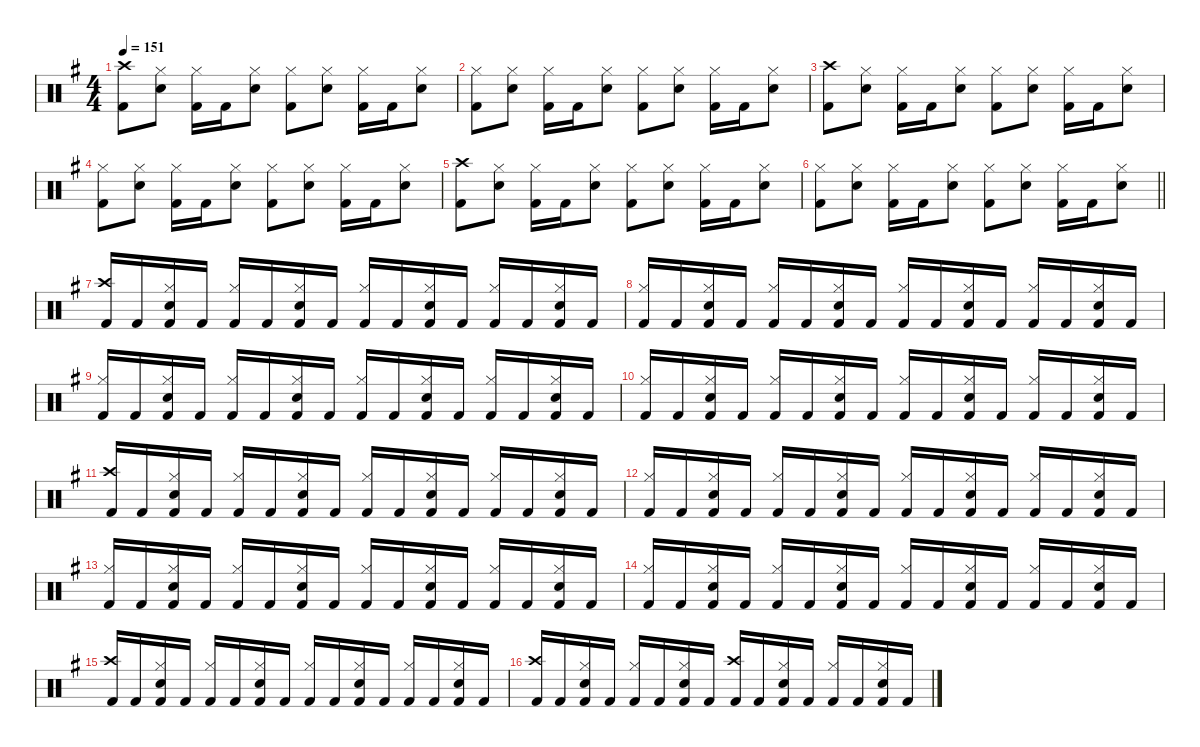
\defaultSystemsLayout 4
\hideDynamics
\bracketExtendMode nobrackets
\singleTrackTrackNamePolicy hidden
\multiTrackTrackNamePolicy hidden
\otherSystemsTrackNameOrientation horizontal
\track ("Lars Ulrich" "drm.") {instrument percussion}
\staff {score}
\articulation defaults
\ts (4 4)
\tempo 151
\clef neutral
\ks eminor
("Crash high (hit)"{acc forcenatural} "Kick (hit) 2"{acc forcenatural}).8{dy f beam Down} ("Hi-Hat (closed)"{acc forcenatural} "Snare (hit) 2"{acc forcenatural}).8{beam Down} ("Hi-Hat (closed)"{acc forcenatural} "Kick (hit) 2"{acc forcenatural}).16{beam Down} "Kick (hit) 2"{acc forcenatural}.16{beam Down} ("Hi-Hat (closed)"{acc forcenatural} "Snare (hit) 2"{acc forcenatural}).8{beam Down} ("Hi-Hat (closed)"{acc forcenatural} "Kick (hit) 2"{acc forcenatural}).8{beam Down} ("Hi-Hat (closed)"{acc forcenatural} "Snare (hit) 2"{acc forcenatural}).8{beam Down} ("Hi-Hat (closed)"{acc forcenatural} "Kick (hit) 2"{acc forcenatural}).16{beam Down} "Kick (hit) 2"{acc forcenatural}.16{beam Down} ("Hi-Hat (closed)"{acc forcenatural} "Snare (hit) 2"{acc forcenatural}).8{beam Down} |
("Hi-Hat (closed)"{acc forcenatural} "Kick (hit) 2"{acc forcenatural}).8{beam Down} ("Hi-Hat (closed)"{acc forcenatural} "Snare (hit) 2"{acc forcenatural}).8{beam Down} ("Hi-Hat (closed)"{acc forcenatural} "Kick (hit) 2"{acc forcenatural}).16{beam Down} "Kick (hit) 2"{acc forcenatural}.16{beam Down} ("Hi-Hat (closed)"{acc forcenatural} "Snare (hit) 2"{acc forcenatural}).8{beam Down} ("Hi-Hat (closed)"{acc forcenatural} "Kick (hit) 2"{acc forcenatural}).8{beam Down} ("Hi-Hat (closed)"{acc forcenatural} "Snare (hit) 2"{acc forcenatural}).8{beam Down} ("Hi-Hat (closed)"{acc forcenatural} "Kick (hit) 2"{acc forcenatural}).16{beam Down} "Kick (hit) 2"{acc forcenatural}.16{beam Down} ("Hi-Hat (closed)"{acc forcenatural} "Snare (hit) 2"{acc forcenatural}).8{beam Down} |
("Crash high (hit)"{acc forcenatural} "Kick (hit) 2"{acc forcenatural}).8{beam Down} ("Hi-Hat (closed)"{acc forcenatural} "Snare (hit) 2"{acc forcenatural}).8{beam Down} ("Hi-Hat (closed)"{acc forcenatural} "Kick (hit) 2"{acc forcenatural}).16{beam Down} "Kick (hit) 2"{acc forcenatural}.16{beam Down} ("Hi-Hat (closed)"{acc forcenatural} "Snare (hit) 2"{acc forcenatural}).8{beam Down} ("Hi-Hat (closed)"{acc forcenatural} "Kick (hit) 2"{acc forcenatural}).8{beam Down} ("Hi-Hat (closed)"{acc forcenatural} "Snare (hit) 2"{acc forcenatural}).8{beam Down} ("Hi-Hat (closed)"{acc forcenatural} "Kick (hit) 2"{acc forcenatural}).16{beam Down} "Kick (hit) 2"{acc forcenatural}.16{beam Down} ("Hi-Hat (closed)"{acc forcenatural} "Snare (hit) 2"{acc forcenatural}).8{beam Down} |
("Hi-Hat (closed)"{acc forcenatural} "Kick (hit) 2"{acc forcenatural}).8{beam Down} ("Hi-Hat (closed)"{acc forcenatural} "Snare (hit) 2"{acc forcenatural}).8{beam Down} ("Hi-Hat (closed)"{acc forcenatural} "Kick (hit) 2"{acc forcenatural}).16{beam Down} "Kick (hit) 2"{acc forcenatural}.16{beam Down} ("Hi-Hat (closed)"{acc forcenatural} "Snare (hit) 2"{acc forcenatural}).8{beam Down} ("Hi-Hat (closed)"{acc forcenatural} "Kick (hit) 2"{acc forcenatural}).8{beam Down} ("Hi-Hat (closed)"{acc forcenatural} "Snare (hit) 2"{acc forcenatural}).8{beam Down} ("Hi-Hat (closed)"{acc forcenatural} "Kick (hit) 2"{acc forcenatural}).16{beam Down} "Kick (hit) 2"{acc forcenatural}.16{beam Down} ("Hi-Hat (closed)"{acc forcenatural} "Snare (hit) 2"{acc forcenatural}).8{beam Down} |
("Crash high (hit)"{acc forcenatural} "Kick (hit) 2"{acc forcenatural}).8{beam Down} ("Hi-Hat (closed)"{acc forcenatural} "Snare (hit) 2"{acc forcenatural}).8{beam Down} ("Hi-Hat (closed)"{acc forcenatural} "Kick (hit) 2"{acc forcenatural}).16{beam Down} "Kick (hit) 2"{acc forcenatural}.16{beam Down} ("Hi-Hat (closed)"{acc forcenatural} "Snare (hit) 2"{acc forcenatural}).8{beam Down} ("Hi-Hat (closed)"{acc forcenatural} "Kick (hit) 2"{acc forcenatural}).8{beam Down} ("Hi-Hat (closed)"{acc forcenatural} "Snare (hit) 2"{acc forcenatural}).8{beam Down} ("Hi-Hat (closed)"{acc forcenatural} "Kick (hit) 2"{acc forcenatural}).16{beam Down} "Kick (hit) 2"{acc forcenatural}.16{beam Down} ("Hi-Hat (closed)"{acc forcenatural} "Snare (hit) 2"{acc forcenatural}).8{beam Down} |
\barLineRight lightlight
("Hi-Hat (closed)"{acc forcenatural} "Kick (hit) 2"{acc forcenatural}).8{beam Down} ("Hi-Hat (closed)"{acc forcenatural} "Snare (hit) 2"{acc forcenatural}).8{beam Down} ("Hi-Hat (closed)"{acc forcenatural} "Kick (hit) 2"{acc forcenatural}).16{beam Down} "Kick (hit) 2"{acc forcenatural}.16{beam Down} ("Hi-Hat (closed)"{acc forcenatural} "Snare (hit) 2"{acc forcenatural}).8{beam Down} ("Hi-Hat (closed)"{acc forcenatural} "Kick (hit) 2"{acc forcenatural}).8{beam Down} ("Hi-Hat (closed)"{acc forcenatural} "Snare (hit) 2"{acc forcenatural}).8{beam Down} ("Hi-Hat (closed)"{acc forcenatural} "Kick (hit) 2"{acc forcenatural}).16{beam Down} "Kick (hit) 2"{acc forcenatural}.16{beam Down} ("Hi-Hat (closed)"{acc forcenatural} "Snare (hit) 2"{acc forcenatural}).8{beam Down} |
("Crash high (hit)"{acc forcenatural} "Kick (hit) 2"{acc forcenatural}).16{beam Up} "Kick (hit) 2"{acc forcenatural}.16{beam Up} ("Hi-Hat (closed)"{acc forcenatural} "Snare (hit) 2"{acc forcenatural} "Kick (hit) 2"{acc forcenatural}).16{beam Up} "Kick (hit) 2"{acc forcenatural}.16{beam Up} ("Hi-Hat (closed)"{acc forcenatural} "Kick (hit) 2"{acc forcenatural}).16{beam Up} "Kick (hit) 2"{acc forcenatural}.16{beam Up} ("Hi-Hat (closed)"{acc forcenatural} "Snare (hit) 2"{acc forcenatural} "Kick (hit) 2"{acc forcenatural}).16{beam Up} "Kick (hit) 2"{acc forcenatural}.16{beam Up} ("Hi-Hat (closed)"{acc forcenatural} "Kick (hit) 2"{acc forcenatural}).16{beam Up} "Kick (hit) 2"{acc forcenatural}.16{beam Up} ("Hi-Hat (closed)"{acc forcenatural} "Snare (hit) 2"{acc forcenatural} "Kick (hit) 2"{acc forcenatural}).16{beam Up} "Kick (hit) 2"{acc forcenatural}.16{beam Up} ("Hi-Hat (closed)"{acc forcenatural} "Kick (hit) 2"{acc forcenatural}).16{beam Up} "Kick (hit) 2"{acc forcenatural}.16{beam Up} ("Hi-Hat (closed)"{acc forcenatural} "Snare (hit) 2"{acc forcenatural} "Kick (hit) 2"{acc forcenatural}).16{beam Up} "Kick (hit) 2"{acc forcenatural}.16{beam Up} |
("Hi-Hat (closed)"{acc forcenatural} "Kick (hit) 2"{acc forcenatural}).16{beam Up} "Kick (hit) 2"{acc forcenatural}.16{beam Up} ("Hi-Hat (closed)"{acc forcenatural} "Snare (hit) 2"{acc forcenatural} "Kick (hit) 2"{acc forcenatural}).16{beam Up} "Kick (hit) 2"{acc forcenatural}.16{beam Up} ("Hi-Hat (closed)"{acc forcenatural} "Kick (hit) 2"{acc forcenatural}).16{beam Up} "Kick (hit) 2"{acc forcenatural}.16{beam Up} ("Hi-Hat (closed)"{acc forcenatural} "Snare (hit) 2"{acc forcenatural} "Kick (hit) 2"{acc forcenatural}).16{beam Up} "Kick (hit) 2"{acc forcenatural}.16{beam Up} ("Hi-Hat (closed)"{acc forcenatural} "Kick (hit) 2"{acc forcenatural}).16{beam Up} "Kick (hit) 2"{acc forcenatural}.16{beam Up} ("Hi-Hat (closed)"{acc forcenatural} "Snare (hit) 2"{acc forcenatural} "Kick (hit) 2"{acc forcenatural}).16{beam Up} "Kick (hit) 2"{acc forcenatural}.16{beam Up} ("Hi-Hat (closed)"{acc forcenatural} "Kick (hit) 2"{acc forcenatural}).16{beam Up} "Kick (hit) 2"{acc forcenatural}.16{beam Up} ("Hi-Hat (closed)"{acc forcenatural} "Snare (hit) 2"{acc forcenatural} "Kick (hit) 2"{acc forcenatural}).16{beam Up} "Kick (hit) 2"{acc forcenatural}.16{beam Up} |
("Hi-Hat (closed)"{acc forcenatural} "Kick (hit) 2"{acc forcenatural}).16{beam Up} "Kick (hit) 2"{acc forcenatural}.16{beam Up} ("Hi-Hat (closed)"{acc forcenatural} "Snare (hit) 2"{acc forcenatural} "Kick (hit) 2"{acc forcenatural}).16{beam Up} "Kick (hit) 2"{acc forcenatural}.16{beam Up} ("Hi-Hat (closed)"{acc forcenatural} "Kick (hit) 2"{acc forcenatural}).16{beam Up} "Kick (hit) 2"{acc forcenatural}.16{beam Up} ("Hi-Hat (closed)"{acc forcenatural} "Snare (hit) 2"{acc forcenatural} "Kick (hit) 2"{acc forcenatural}).16{beam Up} "Kick (hit) 2"{acc forcenatural}.16{beam Up} ("Hi-Hat (closed)"{acc forcenatural} "Kick (hit) 2"{acc forcenatural}).16{beam Up} "Kick (hit) 2"{acc forcenatural}.16{beam Up} ("Hi-Hat (closed)"{acc forcenatural} "Snare (hit) 2"{acc forcenatural} "Kick (hit) 2"{acc forcenatural}).16{beam Up} "Kick (hit) 2"{acc forcenatural}.16{beam Up} ("Hi-Hat (closed)"{acc forcenatural} "Kick (hit) 2"{acc forcenatural}).16{beam Up} "Kick (hit) 2"{acc forcenatural}.16{beam Up} ("Hi-Hat (closed)"{acc forcenatural} "Snare (hit) 2"{acc forcenatural} "Kick (hit) 2"{acc forcenatural}).16{beam Up} "Kick (hit) 2"{acc forcenatural}.16{beam Up} |
("Hi-Hat (closed)"{acc forcenatural} "Kick (hit) 2"{acc forcenatural}).16{beam Up} "Kick (hit) 2"{acc forcenatural}.16{beam Up} ("Hi-Hat (closed)"{acc forcenatural} "Snare (hit) 2"{acc forcenatural} "Kick (hit) 2"{acc forcenatural}).16{beam Up} "Kick (hit) 2"{acc forcenatural}.16{beam Up} ("Hi-Hat (closed)"{acc forcenatural} "Kick (hit) 2"{acc forcenatural}).16{beam Up} "Kick (hit) 2"{acc forcenatural}.16{beam Up} ("Hi-Hat (closed)"{acc forcenatural} "Snare (hit) 2"{acc forcenatural} "Kick (hit) 2"{acc forcenatural}).16{beam Up} "Kick (hit) 2"{acc forcenatural}.16{beam Up} ("Hi-Hat (closed)"{acc forcenatural} "Kick (hit) 2"{acc forcenatural}).16{beam Up} "Kick (hit) 2"{acc forcenatural}.16{beam Up} ("Hi-Hat (closed)"{acc forcenatural} "Snare (hit) 2"{acc forcenatural} "Kick (hit) 2"{acc forcenatural}).16{beam Up} "Kick (hit) 2"{acc forcenatural}.16{beam Up} ("Hi-Hat (closed)"{acc forcenatural} "Kick (hit) 2"{acc forcenatural}).16{beam Up} "Kick (hit) 2"{acc forcenatural}.16{beam Up} ("Hi-Hat (closed)"{acc forcenatural} "Snare (hit) 2"{acc forcenatural} "Kick (hit) 2"{acc forcenatural}).16{beam Up} "Kick (hit) 2"{acc forcenatural}.16{beam Up} |
("Crash high (hit)"{acc forcenatural} "Kick (hit) 2"{acc forcenatural}).16{beam Up} "Kick (hit) 2"{acc forcenatural}.16{beam Up} ("Hi-Hat (closed)"{acc forcenatural} "Snare (hit) 2"{acc forcenatural} "Kick (hit) 2"{acc forcenatural}).16{beam Up} "Kick (hit) 2"{acc forcenatural}.16{beam Up} ("Hi-Hat (closed)"{acc forcenatural} "Kick (hit) 2"{acc forcenatural}).16{beam Up} "Kick (hit) 2"{acc forcenatural}.16{beam Up} ("Hi-Hat (closed)"{acc forcenatural} "Snare (hit) 2"{acc forcenatural} "Kick (hit) 2"{acc forcenatural}).16{beam Up} "Kick (hit) 2"{acc forcenatural}.16{beam Up} ("Hi-Hat (closed)"{acc forcenatural} "Kick (hit) 2"{acc forcenatural}).16{beam Up} "Kick (hit) 2"{acc forcenatural}.16{beam Up} ("Hi-Hat (closed)"{acc forcenatural} "Snare (hit) 2"{acc forcenatural} "Kick (hit) 2"{acc forcenatural}).16{beam Up} "Kick (hit) 2"{acc forcenatural}.16{beam Up} ("Hi-Hat (closed)"{acc forcenatural} "Kick (hit) 2"{acc forcenatural}).16{beam Up} "Kick (hit) 2"{acc forcenatural}.16{beam Up} ("Hi-Hat (closed)"{acc forcenatural} "Snare (hit) 2"{acc forcenatural} "Kick (hit) 2"{acc forcenatural}).16{beam Up} "Kick (hit) 2"{acc forcenatural}.16{beam Up} |
("Hi-Hat (closed)"{acc forcenatural} "Kick (hit) 2"{acc forcenatural}).16{beam Up} "Kick (hit) 2"{acc forcenatural}.16{beam Up} ("Hi-Hat (closed)"{acc forcenatural} "Snare (hit) 2"{acc forcenatural} "Kick (hit) 2"{acc forcenatural}).16{beam Up} "Kick (hit) 2"{acc forcenatural}.16{beam Up} ("Hi-Hat (closed)"{acc forcenatural} "Kick (hit) 2"{acc forcenatural}).16{beam Up} "Kick (hit) 2"{acc forcenatural}.16{beam Up} ("Hi-Hat (closed)"{acc forcenatural} "Snare (hit) 2"{acc forcenatural} "Kick (hit) 2"{acc forcenatural}).16{beam Up} "Kick (hit) 2"{acc forcenatural}.16{beam Up} ("Hi-Hat (closed)"{acc forcenatural} "Kick (hit) 2"{acc forcenatural}).16{beam Up} "Kick (hit) 2"{acc forcenatural}.16{beam Up} ("Hi-Hat (closed)"{acc forcenatural} "Snare (hit) 2"{acc forcenatural} "Kick (hit) 2"{acc forcenatural}).16{beam Up} "Kick (hit) 2"{acc forcenatural}.16{beam Up} ("Hi-Hat (closed)"{acc forcenatural} "Kick (hit) 2"{acc forcenatural}).16{beam Up} "Kick (hit) 2"{acc forcenatural}.16{beam Up} ("Hi-Hat (closed)"{acc forcenatural} "Snare (hit) 2"{acc forcenatural} "Kick (hit) 2"{acc forcenatural}).16{beam Up} "Kick (hit) 2"{acc forcenatural}.16{beam Up} |
("Hi-Hat (closed)"{acc forcenatural} "Kick (hit) 2"{acc forcenatural}).16{beam Up} "Kick (hit) 2"{acc forcenatural}.16{beam Up} ("Hi-Hat (closed)"{acc forcenatural} "Snare (hit) 2"{acc forcenatural} "Kick (hit) 2"{acc forcenatural}).16{beam Up} "Kick (hit) 2"{acc forcenatural}.16{beam Up} ("Hi-Hat (closed)"{acc forcenatural} "Kick (hit) 2"{acc forcenatural}).16{beam Up} "Kick (hit) 2"{acc forcenatural}.16{beam Up} ("Hi-Hat (closed)"{acc forcenatural} "Snare (hit) 2"{acc forcenatural} "Kick (hit) 2"{acc forcenatural}).16{beam Up} "Kick (hit) 2"{acc forcenatural}.16{beam Up} ("Hi-Hat (closed)"{acc forcenatural} "Kick (hit) 2"{acc forcenatural}).16{beam Up} "Kick (hit) 2"{acc forcenatural}.16{beam Up} ("Hi-Hat (closed)"{acc forcenatural} "Snare (hit) 2"{acc forcenatural} "Kick (hit) 2"{acc forcenatural}).16{beam Up} "Kick (hit) 2"{acc forcenatural}.16{beam Up} ("Hi-Hat (closed)"{acc forcenatural} "Kick (hit) 2"{acc forcenatural}).16{beam Up} "Kick (hit) 2"{acc forcenatural}.16{beam Up} ("Hi-Hat (closed)"{acc forcenatural} "Snare (hit) 2"{acc forcenatural} "Kick (hit) 2"{acc forcenatural}).16{beam Up} "Kick (hit) 2"{acc forcenatural}.16{beam Up} |
("Hi-Hat (closed)"{acc forcenatural} "Kick (hit) 2"{acc forcenatural}).16{beam Up} "Kick (hit) 2"{acc forcenatural}.16{beam Up} ("Hi-Hat (closed)"{acc forcenatural} "Snare (hit) 2"{acc forcenatural} "Kick (hit) 2"{acc forcenatural}).16{beam Up} "Kick (hit) 2"{acc forcenatural}.16{beam Up} ("Hi-Hat (closed)"{acc forcenatural} "Kick (hit) 2"{acc forcenatural}).16{beam Up} "Kick (hit) 2"{acc forcenatural}.16{beam Up} ("Hi-Hat (closed)"{acc forcenatural} "Snare (hit) 2"{acc forcenatural} "Kick (hit) 2"{acc forcenatural}).16{beam Up} "Kick (hit) 2"{acc forcenatural}.16{beam Up} ("Hi-Hat (closed)"{acc forcenatural} "Kick (hit) 2"{acc forcenatural}).16{beam Up} "Kick (hit) 2"{acc forcenatural}.16{beam Up} ("Hi-Hat (closed)"{acc forcenatural} "Snare (hit) 2"{acc forcenatural} "Kick (hit) 2"{acc forcenatural}).16{beam Up} "Kick (hit) 2"{acc forcenatural}.16{beam Up} ("Hi-Hat (closed)"{acc forcenatural} "Kick (hit) 2"{acc forcenatural}).16{beam Up} "Kick (hit) 2"{acc forcenatural}.16{beam Up} ("Hi-Hat (closed)"{acc forcenatural} "Snare (hit) 2"{acc forcenatural} "Kick (hit) 2"{acc forcenatural}).16{beam Up} "Kick (hit) 2"{acc forcenatural}.16{beam Up} |
("Crash high (hit)"{acc forcenatural} "Kick (hit) 2"{acc forcenatural}).16{beam Up} "Kick (hit) 2"{acc forcenatural}.16{beam Up} ("Hi-Hat (closed)"{acc forcenatural} "Snare (hit) 2"{acc forcenatural} "Kick (hit) 2"{acc forcenatural}).16{beam Up} "Kick (hit) 2"{acc forcenatural}.16{beam Up} ("Hi-Hat (closed)"{acc forcenatural} "Kick (hit) 2"{acc forcenatural}).16{beam Up} "Kick (hit) 2"{acc forcenatural}.16{beam Up} ("Hi-Hat (closed)"{acc forcenatural} "Snare (hit) 2"{acc forcenatural} "Kick (hit) 2"{acc forcenatural}).16{beam Up} "Kick (hit) 2"{acc forcenatural}.16{beam Up} ("Hi-Hat (closed)"{acc forcenatural} "Kick (hit) 2"{acc forcenatural}).16{beam Up} "Kick (hit) 2"{acc forcenatural}.16{beam Up} ("Hi-Hat (closed)"{acc forcenatural} "Snare (hit) 2"{acc forcenatural} "Kick (hit) 2"{acc forcenatural}).16{beam Up} "Kick (hit) 2"{acc forcenatural}.16{beam Up} ("Hi-Hat (closed)"{acc forcenatural} "Kick (hit) 2"{acc forcenatural}).16{beam Up} "Kick (hit) 2"{acc forcenatural}.16{beam Up} ("Hi-Hat (closed)"{acc forcenatural} "Snare (hit) 2"{acc forcenatural} "Kick (hit) 2"{acc forcenatural}).16{beam Up} "Kick (hit) 2"{acc forcenatural}.16{beam Up} |
("Crash high (hit)"{acc forcenatural} "Kick (hit) 2"{acc forcenatural}).16{beam Up} "Kick (hit) 2"{acc forcenatural}.16{beam Up} ("Hi-Hat (closed)"{acc forcenatural} "Snare (hit) 2"{acc forcenatural} "Kick (hit) 2"{acc forcenatural}).16{beam Up} "Kick (hit) 2"{acc forcenatural}.16{beam Up} ("Hi-Hat (closed)"{acc forcenatural} "Kick (hit) 2"{acc forcenatural}).16{beam Up} "Kick (hit) 2"{acc forcenatural}.16{beam Up} ("Hi-Hat (closed)"{acc forcenatural} "Snare (hit) 2"{acc forcenatural} "Kick (hit) 2"{acc forcenatural}).16{beam Up} "Kick (hit) 2"{acc forcenatural}.16{beam Up} ("Crash high (hit)"{acc forcenatural} "Kick (hit) 2"{acc forcenatural}).16{beam Up} "Kick (hit) 2"{acc forcenatural}.16{beam Up} ("Hi-Hat (closed)"{acc forcenatural} "Snare (hit) 2"{acc forcenatural} "Kick (hit) 2"{acc forcenatural}).16{beam Up} "Kick (hit) 2"{acc forcenatural}.16{beam Up} ("Hi-Hat (closed)"{acc forcenatural} "Kick (hit) 2"{acc forcenatural}).16{beam Up} "Kick (hit) 2"{acc forcenatural}.16{beam Up} ("Hi-Hat (closed)"{acc forcenatural} "Snare (hit) 2"{acc forcenatural} "Kick (hit) 2"{acc forcenatural}).16{beam Up} "Kick (hit) 2"{acc forcenatural}.16{beam Up}
